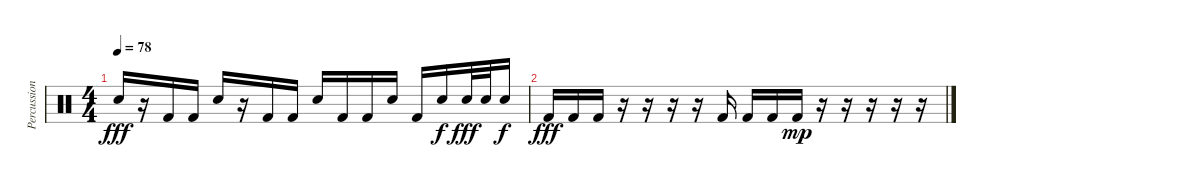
\track ("Percussion" "Percussion") {instrument percussion}
\staff {score}
\articulation defaults
\ts (4 4)
\tempo 78
\clef neutral
\ks c "Electric Snare (hit)".16{dy fff}
r.16 "Kick (hit) 2".16 "Kick (hit) 2".16 "Electric Snare (hit)".16 r.16 "Kick (hit) 2".16 "Kick (hit) 2".16 "Electric Snare (hit)".16 "Kick (hit) 2".16 "Kick (hit) 2".16 "Electric Snare (hit)".16 "Kick (hit) 2".16 "Electric Snare (hit)".16{dy f} "Electric Snare (hit)".32{dy fff} "Electric Snare (hit)".32 "Electric Snare (hit)".16{dy f} |
"Kick (hit) 2".16{dy fff} "Kick (hit) 2".16 "Kick (hit) 2".16 r.16 r.16 r.16 r.16 "Kick (hit) 2".16 "Kick (hit) 2".16 "Kick (hit) 2".16 "Kick (hit) 2".16{dy mp} r.16 r.16 r.16 r.16 r.16
